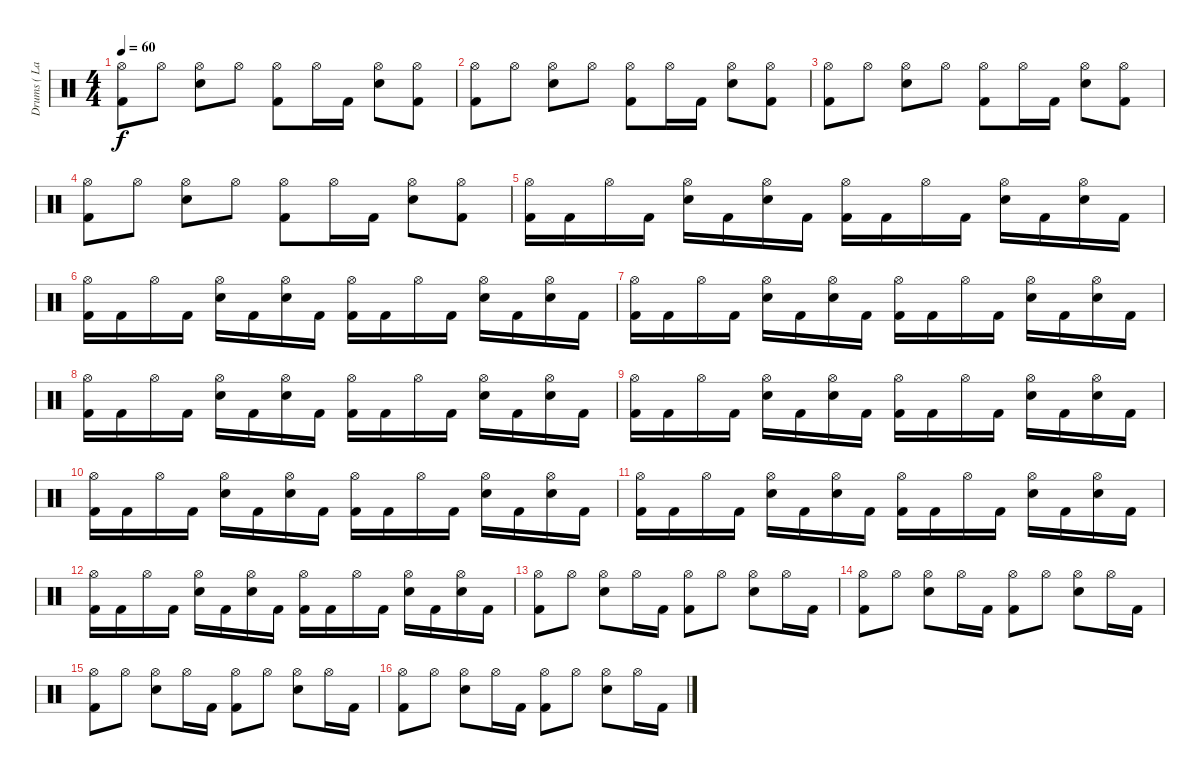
\track ("Drums ( Lars )" "Drums ( La") {instrument percussion}
\staff {score}
\articulation defaults
\ts (4 4)
\tempo 60
\clef neutral
\ks c
("Kick (hit) 2" "Hi-Hat (open)").8{dy f} "Hi-Hat (open)".8 ("Snare (hit) 2" "Hi-Hat (open)").8 "Hi-Hat (open)".8 ("Kick (hit) 2" "Hi-Hat (open)").8 "Hi-Hat (open)".16 "Kick (hit) 2".16 ("Snare (hit) 2" "Hi-Hat (open)").8 ("Kick (hit) 2" "Hi-Hat (open)").8 |
("Kick (hit) 2" "Hi-Hat (open)").8 "Hi-Hat (open)".8 ("Snare (hit) 2" "Hi-Hat (open)").8 "Hi-Hat (open)".8 ("Kick (hit) 2" "Hi-Hat (open)").8 "Hi-Hat (open)".16 "Kick (hit) 2".16 ("Snare (hit) 2" "Hi-Hat (open)").8 ("Kick (hit) 2" "Hi-Hat (open)").8 |
("Kick (hit) 2" "Hi-Hat (open)").8 "Hi-Hat (open)".8 ("Snare (hit) 2" "Hi-Hat (open)").8 "Hi-Hat (open)".8 ("Kick (hit) 2" "Hi-Hat (open)").8 "Hi-Hat (open)".16 "Kick (hit) 2".16 ("Snare (hit) 2" "Hi-Hat (open)").8 ("Kick (hit) 2" "Hi-Hat (open)").8 |
("Kick (hit) 2" "Hi-Hat (open)").8 "Hi-Hat (open)".8 ("Snare (hit) 2" "Hi-Hat (open)").8 "Hi-Hat (open)".8 ("Kick (hit) 2" "Hi-Hat (open)").8 "Hi-Hat (open)".16 "Kick (hit) 2".16 ("Snare (hit) 2" "Hi-Hat (open)").8 ("Kick (hit) 2" "Hi-Hat (open)").8 |
("Kick (hit) 2" "Hi-Hat (open)").16 "Kick (hit) 2".16 "Hi-Hat (open)".16 "Kick (hit) 2".16 ("Snare (hit) 2" "Hi-Hat (open)").16 "Kick (hit) 2".16 ("Snare (hit) 2" "Hi-Hat (open)").16 "Kick (hit) 2".16 ("Kick (hit) 2" "Hi-Hat (open)").16 "Kick (hit) 2".16 "Hi-Hat (open)".16 "Kick (hit) 2".16 ("Snare (hit) 2" "Hi-Hat (open)").16 "Kick (hit) 2".16 ("Snare (hit) 2" "Hi-Hat (open)").16 "Kick (hit) 2".16 |
("Kick (hit) 2" "Hi-Hat (open)").16 "Kick (hit) 2".16 "Hi-Hat (open)".16 "Kick (hit) 2".16 ("Snare (hit) 2" "Hi-Hat (open)").16 "Kick (hit) 2".16 ("Snare (hit) 2" "Hi-Hat (open)").16 "Kick (hit) 2".16 ("Kick (hit) 2" "Hi-Hat (open)").16 "Kick (hit) 2".16 "Hi-Hat (open)".16 "Kick (hit) 2".16 ("Snare (hit) 2" "Hi-Hat (open)").16 "Kick (hit) 2".16 ("Snare (hit) 2" "Hi-Hat (open)").16 "Kick (hit) 2".16 |
("Kick (hit) 2" "Hi-Hat (open)").16 "Kick (hit) 2".16 "Hi-Hat (open)".16 "Kick (hit) 2".16 ("Snare (hit) 2" "Hi-Hat (open)").16 "Kick (hit) 2".16 ("Snare (hit) 2" "Hi-Hat (open)").16 "Kick (hit) 2".16 ("Kick (hit) 2" "Hi-Hat (open)").16 "Kick (hit) 2".16 "Hi-Hat (open)".16 "Kick (hit) 2".16 ("Snare (hit) 2" "Hi-Hat (open)").16 "Kick (hit) 2".16 ("Snare (hit) 2" "Hi-Hat (open)").16 "Kick (hit) 2".16 |
("Kick (hit) 2" "Hi-Hat (open)").16 "Kick (hit) 2".16 "Hi-Hat (open)".16 "Kick (hit) 2".16 ("Snare (hit) 2" "Hi-Hat (open)").16 "Kick (hit) 2".16 ("Snare (hit) 2" "Hi-Hat (open)").16 "Kick (hit) 2".16 ("Kick (hit) 2" "Hi-Hat (open)").16 "Kick (hit) 2".16 "Hi-Hat (open)".16 "Kick (hit) 2".16 ("Snare (hit) 2" "Hi-Hat (open)").16 "Kick (hit) 2".16 ("Snare (hit) 2" "Hi-Hat (open)").16 "Kick (hit) 2".16 |
("Kick (hit) 2" "Hi-Hat (open)").16 "Kick (hit) 2".16 "Hi-Hat (open)".16 "Kick (hit) 2".16 ("Snare (hit) 2" "Hi-Hat (open)").16 "Kick (hit) 2".16 ("Snare (hit) 2" "Hi-Hat (open)").16 "Kick (hit) 2".16 ("Kick (hit) 2" "Hi-Hat (open)").16 "Kick (hit) 2".16 "Hi-Hat (open)".16 "Kick (hit) 2".16 ("Snare (hit) 2" "Hi-Hat (open)").16 "Kick (hit) 2".16 ("Snare (hit) 2" "Hi-Hat (open)").16 "Kick (hit) 2".16 |
("Kick (hit) 2" "Hi-Hat (open)").16 "Kick (hit) 2".16 "Hi-Hat (open)".16 "Kick (hit) 2".16 ("Snare (hit) 2" "Hi-Hat (open)").16 "Kick (hit) 2".16 ("Snare (hit) 2" "Hi-Hat (open)").16 "Kick (hit) 2".16 ("Kick (hit) 2" "Hi-Hat (open)").16 "Kick (hit) 2".16 "Hi-Hat (open)".16 "Kick (hit) 2".16 ("Snare (hit) 2" "Hi-Hat (open)").16 "Kick (hit) 2".16 ("Snare (hit) 2" "Hi-Hat (open)").16 "Kick (hit) 2".16 |
("Kick (hit) 2" "Hi-Hat (open)").16 "Kick (hit) 2".16 "Hi-Hat (open)".16 "Kick (hit) 2".16 ("Snare (hit) 2" "Hi-Hat (open)").16 "Kick (hit) 2".16 ("Snare (hit) 2" "Hi-Hat (open)").16 "Kick (hit) 2".16 ("Kick (hit) 2" "Hi-Hat (open)").16 "Kick (hit) 2".16 "Hi-Hat (open)".16 "Kick (hit) 2".16 ("Snare (hit) 2" "Hi-Hat (open)").16 "Kick (hit) 2".16 ("Snare (hit) 2" "Hi-Hat (open)").16 "Kick (hit) 2".16 |
("Kick (hit) 2" "Hi-Hat (open)").16 "Kick (hit) 2".16 "Hi-Hat (open)".16 "Kick (hit) 2".16 ("Snare (hit) 2" "Hi-Hat (open)").16 "Kick (hit) 2".16 ("Snare (hit) 2" "Hi-Hat (open)").16 "Kick (hit) 2".16 ("Kick (hit) 2" "Hi-Hat (open)").16 "Kick (hit) 2".16 "Hi-Hat (open)".16 "Kick (hit) 2".16 ("Snare (hit) 2" "Hi-Hat (open)").16 "Kick (hit) 2".16 ("Snare (hit) 2" "Hi-Hat (open)").16 "Kick (hit) 2".16 |
("Kick (hit) 2" "Hi-Hat (open)").8 "Hi-Hat (open)".8 ("Snare (hit) 2" "Hi-Hat (open)").8 "Hi-Hat (open)".16 "Kick (hit) 2".16 ("Kick (hit) 2" "Hi-Hat (open)").8 "Hi-Hat (open)".8 ("Snare (hit) 2" "Hi-Hat (open)").8 "Hi-Hat (open)".16 "Kick (hit) 2".16 |
("Kick (hit) 2" "Hi-Hat (open)").8 "Hi-Hat (open)".8 ("Snare (hit) 2" "Hi-Hat (open)").8 "Hi-Hat (open)".16 "Kick (hit) 2".16 ("Kick (hit) 2" "Hi-Hat (open)").8 "Hi-Hat (open)".8 ("Snare (hit) 2" "Hi-Hat (open)").8 "Hi-Hat (open)".16 "Kick (hit) 2".16 |
("Kick (hit) 2" "Hi-Hat (open)").8 "Hi-Hat (open)".8 ("Snare (hit) 2" "Hi-Hat (open)").8 "Hi-Hat (open)".16 "Kick (hit) 2".16 ("Kick (hit) 2" "Hi-Hat (open)").8 "Hi-Hat (open)".8 ("Snare (hit) 2" "Hi-Hat (open)").8 "Hi-Hat (open)".16 "Kick (hit) 2".16 |
("Kick (hit) 2" "Hi-Hat (open)").8 "Hi-Hat (open)".8 ("Snare (hit) 2" "Hi-Hat (open)").8 "Hi-Hat (open)".16 "Kick (hit) 2".16 ("Kick (hit) 2" "Hi-Hat (open)").8 "Hi-Hat (open)".8 ("Snare (hit) 2" "Hi-Hat (open)").8 "Hi-Hat (open)".16 "Kick (hit) 2".16
